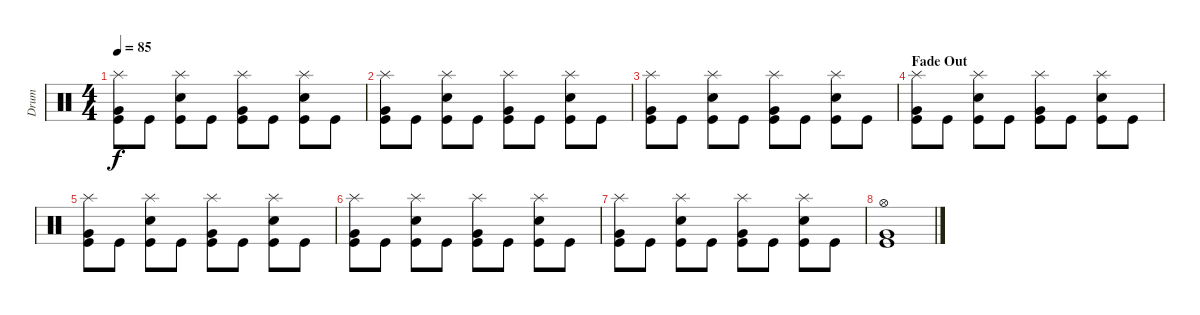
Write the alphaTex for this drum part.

\track ("Drum" "Drum") {instrument percussion}
\staff {score}
\articulation defaults
\ts (4 4)
\tempo 85
\clef neutral
\ks c
("Splash (hit)" "Very Low Tom (hit)" "Kick (hit)").8{dy f} "Kick (hit)".8 ("Splash (hit)" "Snare (hit) 2" "Kick (hit)").8 "Kick (hit)".8 ("Splash (hit)" "Very Low Tom (hit)" "Kick (hit)").8 "Kick (hit)".8 ("Splash (hit)" "Snare (hit) 2" "Kick (hit)").8 "Kick (hit)".8 |
("Splash (hit)" "Very Low Tom (hit)" "Kick (hit)").8 "Kick (hit)".8 ("Splash (hit)" "Snare (hit) 2" "Kick (hit)").8 "Kick (hit)".8 ("Splash (hit)" "Very Low Tom (hit)" "Kick (hit)").8 "Kick (hit)".8 ("Splash (hit)" "Snare (hit) 2" "Kick (hit)").8 "Kick (hit)".8 |
("Splash (hit)" "Very Low Tom (hit)" "Kick (hit)").8 "Kick (hit)".8 ("Splash (hit)" "Snare (hit) 2" "Kick (hit)").8 "Kick (hit)".8 ("Splash (hit)" "Very Low Tom (hit)" "Kick (hit)").8 "Kick (hit)".8 ("Splash (hit)" "Snare (hit) 2" "Kick (hit)").8 "Kick (hit)".8 |
\section ("" "Fade Out")
("Splash (hit)" "Very Low Tom (hit)" "Kick (hit)").8{volume 7} "Kick (hit)".8 ("Splash (hit)" "Snare (hit) 2" "Kick (hit)").8 "Kick (hit)".8 ("Splash (hit)" "Very Low Tom (hit)" "Kick (hit)").8 "Kick (hit)".8 ("Splash (hit)" "Snare (hit) 2" "Kick (hit)").8 "Kick (hit)".8 |
("Splash (hit)" "Very Low Tom (hit)" "Kick (hit)").8 "Kick (hit)".8 ("Splash (hit)" "Snare (hit) 2" "Kick (hit)").8 "Kick (hit)".8 ("Splash (hit)" "Very Low Tom (hit)" "Kick (hit)").8 "Kick (hit)".8 ("Splash (hit)" "Snare (hit) 2" "Kick (hit)").8 "Kick (hit)".8 |
("Splash (hit)" "Very Low Tom (hit)" "Kick (hit)").8{volume 0} "Kick (hit)".8 ("Splash (hit)" "Snare (hit) 2" "Kick (hit)").8 "Kick (hit)".8 ("Splash (hit)" "Very Low Tom (hit)" "Kick (hit)").8 "Kick (hit)".8 ("Splash (hit)" "Snare (hit) 2" "Kick (hit)").8 "Kick (hit)".8 |
("Splash (hit)" "Very Low Tom (hit)" "Kick (hit)").8 "Kick (hit)".8 ("Splash (hit)" "Snare (hit) 2" "Kick (hit)").8 "Kick (hit)".8 ("Splash (hit)" "Very Low Tom (hit)" "Kick (hit)").8 "Kick (hit)".8 ("Splash (hit)" "Snare (hit) 2" "Kick (hit)").8 "Kick (hit)".8 |
("Hi-Hat (open)" "Very Low Tom (hit)" "Kick (hit)").1
